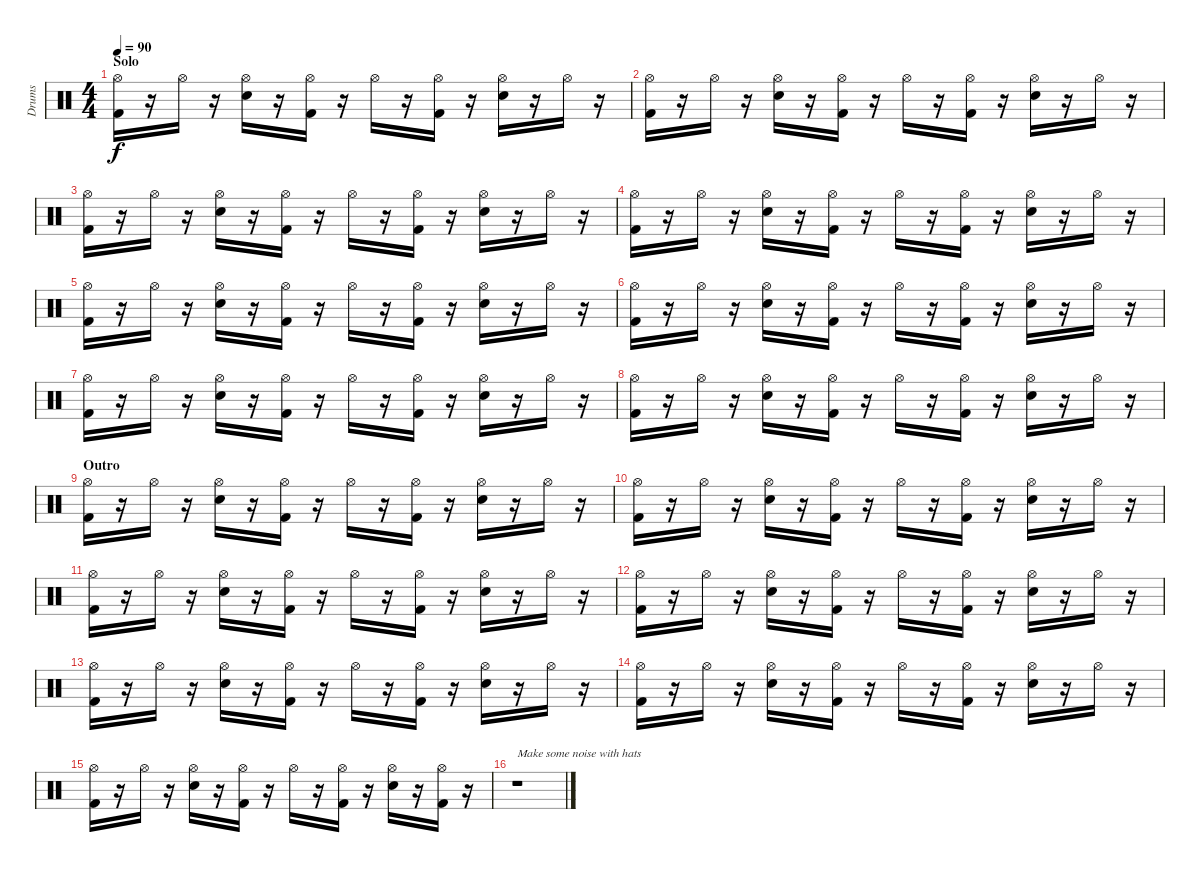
\track ("Drums" "Drums") {instrument percussion}
\staff {score}
\articulation defaults
\ts (4 4)
\section ("" "Solo")
\tempo 90
\clef neutral
\ks c
("Hi-Hat (open)" "Kick (hit) 2").16{dy f} r.16 "Hi-Hat (open)".16 r.16 ("Hi-Hat (open)" "Electric Snare (hit)").16 r.16 ("Hi-Hat (open)" "Kick (hit) 2").16 r.16 "Hi-Hat (open)".16 r.16 ("Hi-Hat (open)" "Kick (hit) 2").16 r.16 ("Hi-Hat (open)" "Electric Snare (hit)").16 r.16 "Hi-Hat (open)".16 r.16 |
("Hi-Hat (open)" "Kick (hit) 2").16 r.16 "Hi-Hat (open)".16 r.16 ("Hi-Hat (open)" "Electric Snare (hit)").16 r.16 ("Hi-Hat (open)" "Kick (hit) 2").16 r.16 "Hi-Hat (open)".16 r.16 ("Hi-Hat (open)" "Kick (hit) 2").16 r.16 ("Hi-Hat (open)" "Electric Snare (hit)").16 r.16 "Hi-Hat (open)".16 r.16 |
("Hi-Hat (open)" "Kick (hit) 2").16 r.16 "Hi-Hat (open)".16 r.16 ("Hi-Hat (open)" "Electric Snare (hit)").16 r.16 ("Hi-Hat (open)" "Kick (hit) 2").16 r.16 "Hi-Hat (open)".16 r.16 ("Hi-Hat (open)" "Kick (hit) 2").16 r.16 ("Hi-Hat (open)" "Electric Snare (hit)").16 r.16 "Hi-Hat (open)".16 r.16 |
("Hi-Hat (open)" "Kick (hit) 2").16 r.16 "Hi-Hat (open)".16 r.16 ("Hi-Hat (open)" "Electric Snare (hit)").16 r.16 ("Hi-Hat (open)" "Kick (hit) 2").16 r.16 "Hi-Hat (open)".16 r.16 ("Hi-Hat (open)" "Kick (hit) 2").16 r.16 ("Hi-Hat (open)" "Electric Snare (hit)").16 r.16 "Hi-Hat (open)".16 r.16 |
("Hi-Hat (open)" "Kick (hit) 2").16 r.16 "Hi-Hat (open)".16 r.16 ("Hi-Hat (open)" "Electric Snare (hit)").16 r.16 ("Hi-Hat (open)" "Kick (hit) 2").16 r.16 "Hi-Hat (open)".16 r.16 ("Hi-Hat (open)" "Kick (hit) 2").16 r.16 ("Hi-Hat (open)" "Electric Snare (hit)").16 r.16 "Hi-Hat (open)".16 r.16 |
("Hi-Hat (open)" "Kick (hit) 2").16 r.16 "Hi-Hat (open)".16 r.16 ("Hi-Hat (open)" "Electric Snare (hit)").16 r.16 ("Hi-Hat (open)" "Kick (hit) 2").16 r.16 "Hi-Hat (open)".16 r.16 ("Hi-Hat (open)" "Kick (hit) 2").16 r.16 ("Hi-Hat (open)" "Electric Snare (hit)").16 r.16 "Hi-Hat (open)".16 r.16 |
("Hi-Hat (open)" "Kick (hit) 2").16 r.16 "Hi-Hat (open)".16 r.16 ("Hi-Hat (open)" "Electric Snare (hit)").16 r.16 ("Hi-Hat (open)" "Kick (hit) 2").16 r.16 "Hi-Hat (open)".16 r.16 ("Hi-Hat (open)" "Kick (hit) 2").16 r.16 ("Hi-Hat (open)" "Electric Snare (hit)").16 r.16 "Hi-Hat (open)".16 r.16 |
("Hi-Hat (open)" "Kick (hit) 2").16 r.16 "Hi-Hat (open)".16 r.16 ("Hi-Hat (open)" "Electric Snare (hit)").16 r.16 ("Hi-Hat (open)" "Kick (hit) 2").16 r.16 "Hi-Hat (open)".16 r.16 ("Hi-Hat (open)" "Kick (hit) 2").16 r.16 ("Hi-Hat (open)" "Electric Snare (hit)").16 r.16 "Hi-Hat (open)".16 r.16 |
\section ("" "Outro")
("Hi-Hat (open)" "Kick (hit) 2").16 r.16 "Hi-Hat (open)".16 r.16 ("Hi-Hat (open)" "Electric Snare (hit)").16 r.16 ("Hi-Hat (open)" "Kick (hit) 2").16 r.16 "Hi-Hat (open)".16 r.16 ("Hi-Hat (open)" "Kick (hit) 2").16 r.16 ("Hi-Hat (open)" "Electric Snare (hit)").16 r.16 "Hi-Hat (open)".16 r.16 |
("Hi-Hat (open)" "Kick (hit) 2").16 r.16 "Hi-Hat (open)".16 r.16 ("Hi-Hat (open)" "Electric Snare (hit)").16 r.16 ("Hi-Hat (open)" "Kick (hit) 2").16 r.16 "Hi-Hat (open)".16 r.16 ("Hi-Hat (open)" "Kick (hit) 2").16 r.16 ("Hi-Hat (open)" "Electric Snare (hit)").16 r.16 "Hi-Hat (open)".16 r.16 |
("Hi-Hat (open)" "Kick (hit) 2").16 r.16 "Hi-Hat (open)".16 r.16 ("Hi-Hat (open)" "Electric Snare (hit)").16 r.16 ("Hi-Hat (open)" "Kick (hit) 2").16 r.16 "Hi-Hat (open)".16 r.16 ("Hi-Hat (open)" "Kick (hit) 2").16 r.16 ("Hi-Hat (open)" "Electric Snare (hit)").16 r.16 "Hi-Hat (open)".16 r.16 |
("Hi-Hat (open)" "Kick (hit) 2").16 r.16 "Hi-Hat (open)".16 r.16 ("Hi-Hat (open)" "Electric Snare (hit)").16 r.16 ("Hi-Hat (open)" "Kick (hit) 2").16 r.16 "Hi-Hat (open)".16 r.16 ("Hi-Hat (open)" "Kick (hit) 2").16 r.16 ("Hi-Hat (open)" "Electric Snare (hit)").16 r.16 "Hi-Hat (open)".16 r.16 |
("Hi-Hat (open)" "Kick (hit) 2").16 r.16 "Hi-Hat (open)".16 r.16 ("Hi-Hat (open)" "Electric Snare (hit)").16 r.16 ("Hi-Hat (open)" "Kick (hit) 2").16 r.16 "Hi-Hat (open)".16 r.16 ("Hi-Hat (open)" "Kick (hit) 2").16 r.16 ("Hi-Hat (open)" "Electric Snare (hit)").16 r.16 "Hi-Hat (open)".16 r.16 |
("Hi-Hat (open)" "Kick (hit) 2").16 r.16 "Hi-Hat (open)".16 r.16 ("Hi-Hat (open)" "Electric Snare (hit)").16 r.16 ("Hi-Hat (open)" "Kick (hit) 2").16 r.16 "Hi-Hat (open)".16 r.16 ("Hi-Hat (open)" "Kick (hit) 2").16 r.16 ("Hi-Hat (open)" "Electric Snare (hit)").16 r.16 "Hi-Hat (open)".16 r.16 |
("Hi-Hat (open)" "Kick (hit) 2").16 r.16 "Hi-Hat (open)".16 r.16 ("Hi-Hat (open)" "Electric Snare (hit)").16 r.16 ("Hi-Hat (open)" "Kick (hit) 2").16 r.16 "Hi-Hat (open)".16 r.16 ("Hi-Hat (open)" "Kick (hit) 2").16 r.16 ("Hi-Hat (open)" "Electric Snare (hit)").16 r.16 ("Hi-Hat (open)" "Kick (hit) 2").16 r.16 |
r.1{txt "Make some noise with hats"}
